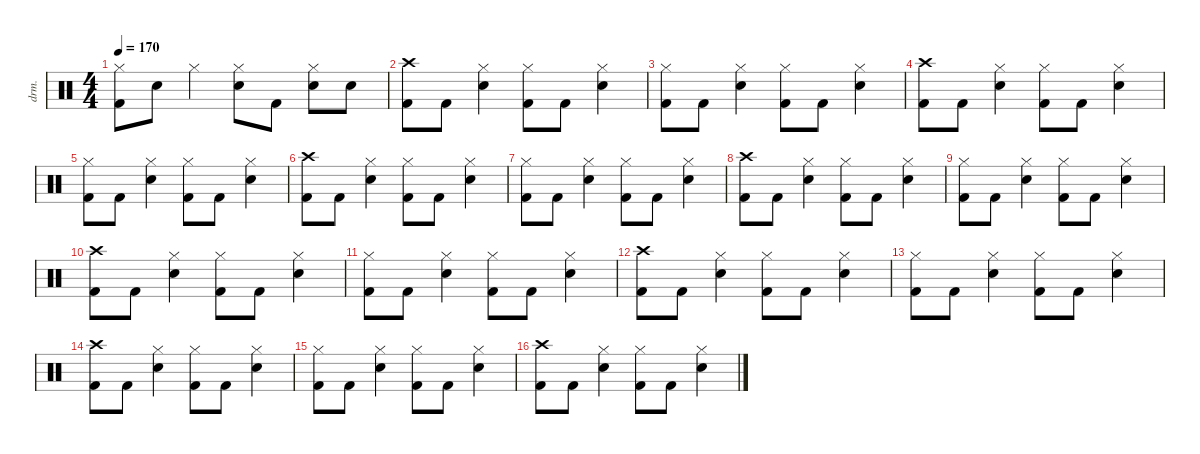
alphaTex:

\defaultSystemsLayout 4
\hideDynamics
\bracketExtendMode nobrackets
\otherSystemsTrackNameOrientation horizontal
\track ("Percussion" "drm.") {instrument percussion}
\staff {score}
\articulation defaults
\ts (4 4)
\tempo 170
\clef neutral
\ks c
("Hi-Hat (closed)" "Kick (hit) 2").8{dy f beam Down} "Snare (hit) 2".8{beam Down} "Hi-Hat (closed)".4{beam Down} ("Hi-Hat (closed)" "Snare (hit) 2").8{beam Down} "Kick (hit) 2".8{beam Down} ("Hi-Hat (closed)" "Snare (hit) 2").8{beam Down} "Snare (hit) 2".8{beam Down} |
("Crash high (hit)" "Kick (hit) 2").8{beam Down} "Kick (hit) 2".8{beam Down} ("Hi-Hat (closed)" "Snare (hit) 2").4{beam Down} ("Hi-Hat (closed)" "Kick (hit) 2").8{beam Down} "Kick (hit) 2".8{beam Down} ("Hi-Hat (closed)" "Snare (hit) 2").4{beam Down} |
("Hi-Hat (closed)" "Kick (hit) 2").8{beam Down} "Kick (hit) 2".8{beam Down} ("Hi-Hat (closed)" "Snare (hit) 2").4{beam Down} ("Hi-Hat (closed)" "Kick (hit) 2").8{beam Down} "Kick (hit) 2".8{beam Down} ("Hi-Hat (closed)" "Snare (hit) 2").4{beam Down} |
("Crash high (hit)" "Kick (hit) 2").8{beam Down} "Kick (hit) 2".8{beam Down} ("Hi-Hat (closed)" "Snare (hit) 2").4{beam Down} ("Hi-Hat (closed)" "Kick (hit) 2").8{beam Down} "Kick (hit) 2".8{beam Down} ("Hi-Hat (closed)" "Snare (hit) 2").4{beam Down} |
("Hi-Hat (closed)" "Kick (hit) 2").8{beam Down} "Kick (hit) 2".8{beam Down} ("Hi-Hat (closed)" "Snare (hit) 2").4{beam Down} ("Hi-Hat (closed)" "Kick (hit) 2").8{beam Down} "Kick (hit) 2".8{beam Down} ("Hi-Hat (closed)" "Snare (hit) 2").4{beam Down} |
("Crash high (hit)" "Kick (hit) 2").8{beam Down} "Kick (hit) 2".8{beam Down} ("Hi-Hat (closed)" "Snare (hit) 2").4{beam Down} ("Hi-Hat (closed)" "Kick (hit) 2").8{beam Down} "Kick (hit) 2".8{beam Down} ("Hi-Hat (closed)" "Snare (hit) 2").4{beam Down} |
("Hi-Hat (closed)" "Kick (hit) 2").8{beam Down} "Kick (hit) 2".8{beam Down} ("Hi-Hat (closed)" "Snare (hit) 2").4{beam Down} ("Hi-Hat (closed)" "Kick (hit) 2").8{beam Down} "Kick (hit) 2".8{beam Down} ("Hi-Hat (closed)" "Snare (hit) 2").4{beam Down} |
("Crash high (hit)" "Kick (hit) 2").8{beam Down} "Kick (hit) 2".8{beam Down} ("Hi-Hat (closed)" "Snare (hit) 2").4{beam Down} ("Hi-Hat (closed)" "Kick (hit) 2").8{beam Down} "Kick (hit) 2".8{beam Down} ("Hi-Hat (closed)" "Snare (hit) 2").4{beam Down} |
("Hi-Hat (closed)" "Kick (hit) 2").8{beam Down} "Kick (hit) 2".8{beam Down} ("Hi-Hat (closed)" "Snare (hit) 2").4{beam Down} ("Hi-Hat (closed)" "Kick (hit) 2").8{beam Down} "Kick (hit) 2".8{beam Down} ("Hi-Hat (closed)" "Snare (hit) 2").4{beam Down} |
("Crash high (hit)" "Kick (hit) 2").8{beam Down} "Kick (hit) 2".8{beam Down} ("Hi-Hat (closed)" "Snare (hit) 2").4{beam Down} ("Hi-Hat (closed)" "Kick (hit) 2").8{beam Down} "Kick (hit) 2".8{beam Down} ("Hi-Hat (closed)" "Snare (hit) 2").4{beam Down} |
("Hi-Hat (closed)" "Kick (hit) 2").8{beam Down} "Kick (hit) 2".8{beam Down} ("Hi-Hat (closed)" "Snare (hit) 2").4{beam Down} ("Hi-Hat (closed)" "Kick (hit) 2").8{beam Down} "Kick (hit) 2".8{beam Down} ("Hi-Hat (closed)" "Snare (hit) 2").4{beam Down} |
("Crash high (hit)" "Kick (hit) 2").8{beam Down} "Kick (hit) 2".8{beam Down} ("Hi-Hat (closed)" "Snare (hit) 2").4{beam Down} ("Hi-Hat (closed)" "Kick (hit) 2").8{beam Down} "Kick (hit) 2".8{beam Down} ("Hi-Hat (closed)" "Snare (hit) 2").4{beam Down} |
("Hi-Hat (closed)" "Kick (hit) 2").8{beam Down} "Kick (hit) 2".8{beam Down} ("Hi-Hat (closed)" "Snare (hit) 2").4{beam Down} ("Hi-Hat (closed)" "Kick (hit) 2").8{beam Down} "Kick (hit) 2".8{beam Down} ("Hi-Hat (closed)" "Snare (hit) 2").4{beam Down} |
("Crash high (hit)" "Kick (hit) 2").8{beam Down} "Kick (hit) 2".8{beam Down} ("Hi-Hat (closed)" "Snare (hit) 2").4{beam Down} ("Hi-Hat (closed)" "Kick (hit) 2").8{beam Down} "Kick (hit) 2".8{beam Down} ("Hi-Hat (closed)" "Snare (hit) 2").4{beam Down} |
("Hi-Hat (closed)" "Kick (hit) 2").8{beam Down} "Kick (hit) 2".8{beam Down} ("Hi-Hat (closed)" "Snare (hit) 2").4{beam Down} ("Hi-Hat (closed)" "Kick (hit) 2").8{beam Down} "Kick (hit) 2".8{beam Down} ("Hi-Hat (closed)" "Snare (hit) 2").4{beam Down} |
("Crash high (hit)" "Kick (hit) 2").8{beam Down} "Kick (hit) 2".8{beam Down} ("Hi-Hat (closed)" "Snare (hit) 2").4{beam Down} ("Hi-Hat (closed)" "Kick (hit) 2").8{beam Down} "Kick (hit) 2".8{beam Down} ("Hi-Hat (closed)" "Snare (hit) 2").4{beam Down}
